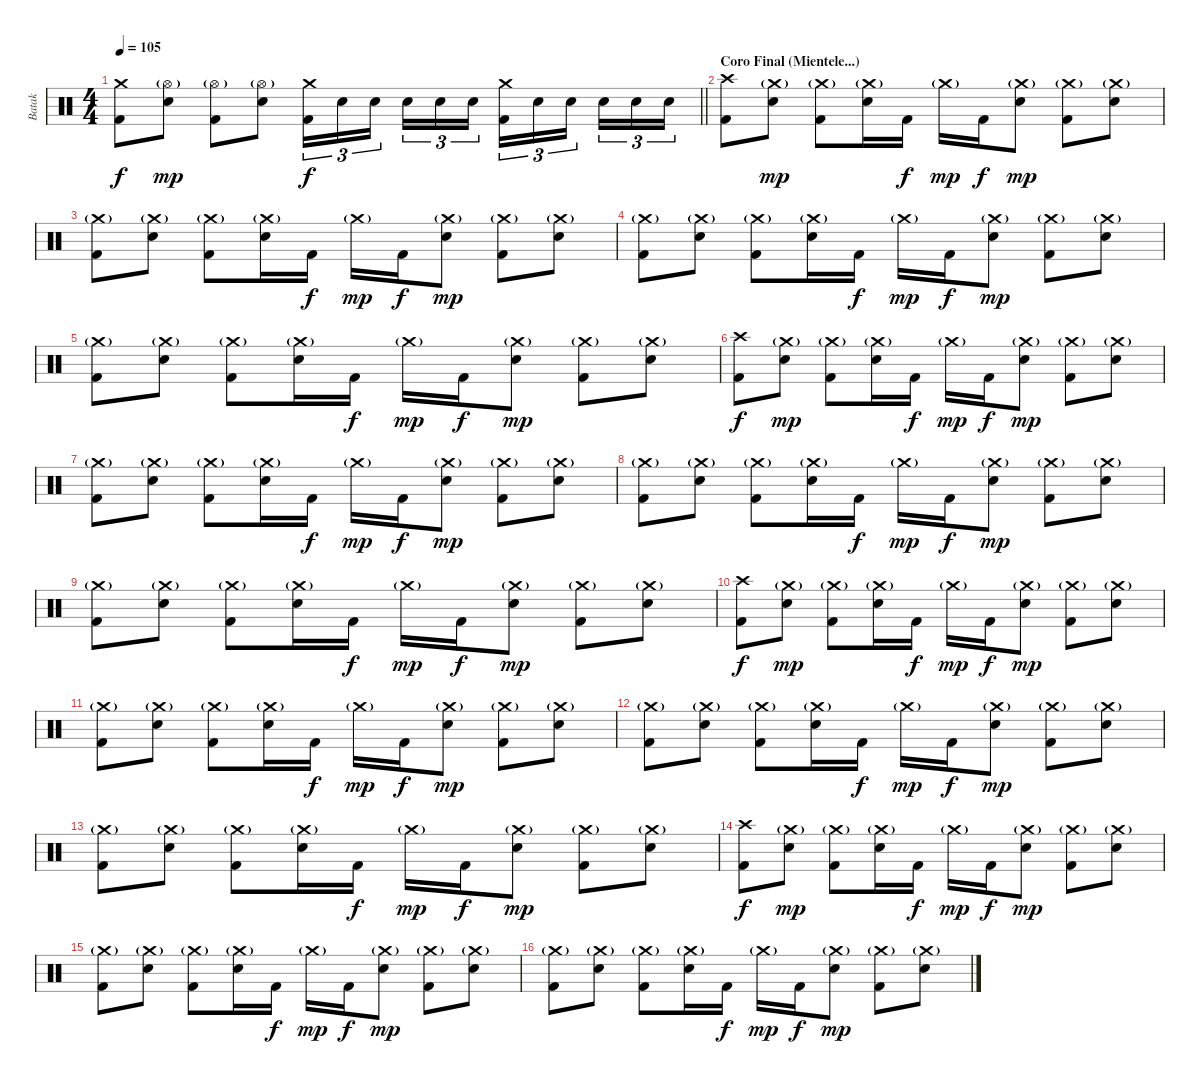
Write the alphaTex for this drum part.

\track ("Batak" "Batak") {instrument percussion bank 7}
\staff {score}
\articulation defaults
\ts (4 4)
\tempo 105
\clef neutral
\barLineRight lightlight
\ks c
("Crash medium (hit)" "Kick (hit) 2").8{dy f} ("Hi-Hat (open)"{g} "Electric Snare (hit)").8{dy mp} ("Hi-Hat (open)"{g} "Kick (hit) 2").8 ("Hi-Hat (open)"{g} "Electric Snare (hit)").8 ("Crash medium (hit)" "Kick (hit) 2").16{tu (3 2) dy f} "Electric Snare (hit)".16{tu (3 2)} "Electric Snare (hit)".16{tu (3 2) beam splitsecondary} "Electric Snare (hit)".16{tu (3 2)} "Electric Snare (hit)".16{tu (3 2)} "Electric Snare (hit)".16{tu (3 2)} ("Crash medium (hit)" "Kick (hit) 2").16{tu (3 2)} "Electric Snare (hit)".16{tu (3 2)} "Electric Snare (hit)".16{tu (3 2) beam splitsecondary} "Electric Snare (hit)".16{tu (3 2)} "Electric Snare (hit)".16{tu (3 2)} "Electric Snare (hit)".16{tu (3 2)} |
\section ("" "Coro Final (Mientele...)")
("Crash high (hit)" "Kick (hit) 2").8 ("Crash medium (hit)"{g} "Electric Snare (hit)").8{dy mp} ("Crash medium (hit)"{g} "Kick (hit) 2").8 ("Crash medium (hit)"{g} "Electric Snare (hit)").16 "Kick (hit) 2".16{dy f} "Crash medium (hit)"{g}.16{dy mp} "Kick (hit) 2".16{dy f} ("Crash medium (hit)"{g} "Electric Snare (hit)").8{dy mp} ("Crash medium (hit)"{g} "Kick (hit) 2").8 ("Crash medium (hit)"{g} "Electric Snare (hit)").8 |
("Crash medium (hit)"{g} "Kick (hit) 2").8 ("Crash medium (hit)"{g} "Electric Snare (hit)").8 ("Crash medium (hit)"{g} "Kick (hit) 2").8 ("Crash medium (hit)"{g} "Electric Snare (hit)").16 "Kick (hit) 2".16{dy f} "Crash medium (hit)"{g}.16{dy mp} "Kick (hit) 2".16{dy f} ("Crash medium (hit)"{g} "Electric Snare (hit)").8{dy mp} ("Crash medium (hit)"{g} "Kick (hit) 2").8 ("Crash medium (hit)"{g} "Electric Snare (hit)").8 |
("Crash medium (hit)"{g} "Kick (hit) 2").8 ("Crash medium (hit)"{g} "Electric Snare (hit)").8 ("Crash medium (hit)"{g} "Kick (hit) 2").8 ("Crash medium (hit)"{g} "Electric Snare (hit)").16 "Kick (hit) 2".16{dy f} "Crash medium (hit)"{g}.16{dy mp} "Kick (hit) 2".16{dy f} ("Crash medium (hit)"{g} "Electric Snare (hit)").8{dy mp} ("Crash medium (hit)"{g} "Kick (hit) 2").8 ("Crash medium (hit)"{g} "Electric Snare (hit)").8 |
("Crash medium (hit)"{g} "Kick (hit) 2").8 ("Crash medium (hit)"{g} "Electric Snare (hit)").8 ("Crash medium (hit)"{g} "Kick (hit) 2").8 ("Crash medium (hit)"{g} "Electric Snare (hit)").16 "Kick (hit) 2".16{dy f} "Crash medium (hit)"{g}.16{dy mp} "Kick (hit) 2".16{dy f} ("Crash medium (hit)"{g} "Electric Snare (hit)").8{dy mp} ("Crash medium (hit)"{g} "Kick (hit) 2").8 ("Crash medium (hit)"{g} "Electric Snare (hit)").8 |
("Crash high (hit)" "Kick (hit) 2").8{dy f} ("Crash medium (hit)"{g} "Electric Snare (hit)").8{dy mp} ("Crash medium (hit)"{g} "Kick (hit) 2").8 ("Crash medium (hit)"{g} "Electric Snare (hit)").16 "Kick (hit) 2".16{dy f} "Crash medium (hit)"{g}.16{dy mp} "Kick (hit) 2".16{dy f} ("Crash medium (hit)"{g} "Electric Snare (hit)").8{dy mp} ("Crash medium (hit)"{g} "Kick (hit) 2").8 ("Crash medium (hit)"{g} "Electric Snare (hit)").8 |
("Crash medium (hit)"{g} "Kick (hit) 2").8 ("Crash medium (hit)"{g} "Electric Snare (hit)").8 ("Crash medium (hit)"{g} "Kick (hit) 2").8 ("Crash medium (hit)"{g} "Electric Snare (hit)").16 "Kick (hit) 2".16{dy f} "Crash medium (hit)"{g}.16{dy mp} "Kick (hit) 2".16{dy f} ("Crash medium (hit)"{g} "Electric Snare (hit)").8{dy mp} ("Crash medium (hit)"{g} "Kick (hit) 2").8 ("Crash medium (hit)"{g} "Electric Snare (hit)").8 |
("Crash medium (hit)"{g} "Kick (hit) 2").8 ("Crash medium (hit)"{g} "Electric Snare (hit)").8 ("Crash medium (hit)"{g} "Kick (hit) 2").8 ("Crash medium (hit)"{g} "Electric Snare (hit)").16 "Kick (hit) 2".16{dy f} "Crash medium (hit)"{g}.16{dy mp} "Kick (hit) 2".16{dy f} ("Crash medium (hit)"{g} "Electric Snare (hit)").8{dy mp} ("Crash medium (hit)"{g} "Kick (hit) 2").8 ("Crash medium (hit)"{g} "Electric Snare (hit)").8 |
("Crash medium (hit)"{g} "Kick (hit) 2").8 ("Crash medium (hit)"{g} "Electric Snare (hit)").8 ("Crash medium (hit)"{g} "Kick (hit) 2").8 ("Crash medium (hit)"{g} "Electric Snare (hit)").16 "Kick (hit) 2".16{dy f} "Crash medium (hit)"{g}.16{dy mp} "Kick (hit) 2".16{dy f} ("Crash medium (hit)"{g} "Electric Snare (hit)").8{dy mp} ("Crash medium (hit)"{g} "Kick (hit) 2").8 ("Crash medium (hit)"{g} "Electric Snare (hit)").8 |
("Crash high (hit)" "Kick (hit) 2").8{dy f} ("Crash medium (hit)"{g} "Electric Snare (hit)").8{dy mp} ("Crash medium (hit)"{g} "Kick (hit) 2").8 ("Crash medium (hit)"{g} "Electric Snare (hit)").16 "Kick (hit) 2".16{dy f} "Crash medium (hit)"{g}.16{dy mp} "Kick (hit) 2".16{dy f} ("Crash medium (hit)"{g} "Electric Snare (hit)").8{dy mp} ("Crash medium (hit)"{g} "Kick (hit) 2").8 ("Crash medium (hit)"{g} "Electric Snare (hit)").8 |
("Crash medium (hit)"{g} "Kick (hit) 2").8 ("Crash medium (hit)"{g} "Electric Snare (hit)").8 ("Crash medium (hit)"{g} "Kick (hit) 2").8 ("Crash medium (hit)"{g} "Electric Snare (hit)").16 "Kick (hit) 2".16{dy f} "Crash medium (hit)"{g}.16{dy mp} "Kick (hit) 2".16{dy f} ("Crash medium (hit)"{g} "Electric Snare (hit)").8{dy mp} ("Crash medium (hit)"{g} "Kick (hit) 2").8 ("Crash medium (hit)"{g} "Electric Snare (hit)").8 |
("Crash medium (hit)"{g} "Kick (hit) 2").8 ("Crash medium (hit)"{g} "Electric Snare (hit)").8 ("Crash medium (hit)"{g} "Kick (hit) 2").8 ("Crash medium (hit)"{g} "Electric Snare (hit)").16 "Kick (hit) 2".16{dy f} "Crash medium (hit)"{g}.16{dy mp} "Kick (hit) 2".16{dy f} ("Crash medium (hit)"{g} "Electric Snare (hit)").8{dy mp} ("Crash medium (hit)"{g} "Kick (hit) 2").8 ("Crash medium (hit)"{g} "Electric Snare (hit)").8 |
("Crash medium (hit)"{g} "Kick (hit) 2").8 ("Crash medium (hit)"{g} "Electric Snare (hit)").8 ("Crash medium (hit)"{g} "Kick (hit) 2").8 ("Crash medium (hit)"{g} "Electric Snare (hit)").16 "Kick (hit) 2".16{dy f} "Crash medium (hit)"{g}.16{dy mp} "Kick (hit) 2".16{dy f} ("Crash medium (hit)"{g} "Electric Snare (hit)").8{dy mp} ("Crash medium (hit)"{g} "Kick (hit) 2").8 ("Crash medium (hit)"{g} "Electric Snare (hit)").8 |
("Crash high (hit)" "Kick (hit) 2").8{dy f} ("Crash medium (hit)"{g} "Electric Snare (hit)").8{dy mp} ("Crash medium (hit)"{g} "Kick (hit) 2").8 ("Crash medium (hit)"{g} "Electric Snare (hit)").16 "Kick (hit) 2".16{dy f} "Crash medium (hit)"{g}.16{dy mp} "Kick (hit) 2".16{dy f} ("Crash medium (hit)"{g} "Electric Snare (hit)").8{dy mp} ("Crash medium (hit)"{g} "Kick (hit) 2").8 ("Crash medium (hit)"{g} "Electric Snare (hit)").8 |
("Crash medium (hit)"{g} "Kick (hit) 2").8 ("Crash medium (hit)"{g} "Electric Snare (hit)").8 ("Crash medium (hit)"{g} "Kick (hit) 2").8 ("Crash medium (hit)"{g} "Electric Snare (hit)").16 "Kick (hit) 2".16{dy f} "Crash medium (hit)"{g}.16{dy mp} "Kick (hit) 2".16{dy f} ("Crash medium (hit)"{g} "Electric Snare (hit)").8{dy mp} ("Crash medium (hit)"{g} "Kick (hit) 2").8 ("Crash medium (hit)"{g} "Electric Snare (hit)").8 |
("Crash medium (hit)"{g} "Kick (hit) 2").8 ("Crash medium (hit)"{g} "Electric Snare (hit)").8 ("Crash medium (hit)"{g} "Kick (hit) 2").8 ("Crash medium (hit)"{g} "Electric Snare (hit)").16 "Kick (hit) 2".16{dy f} "Crash medium (hit)"{g}.16{dy mp} "Kick (hit) 2".16{dy f} ("Crash medium (hit)"{g} "Electric Snare (hit)").8{dy mp} ("Crash medium (hit)"{g} "Kick (hit) 2").8 ("Crash medium (hit)"{g} "Electric Snare (hit)").8
